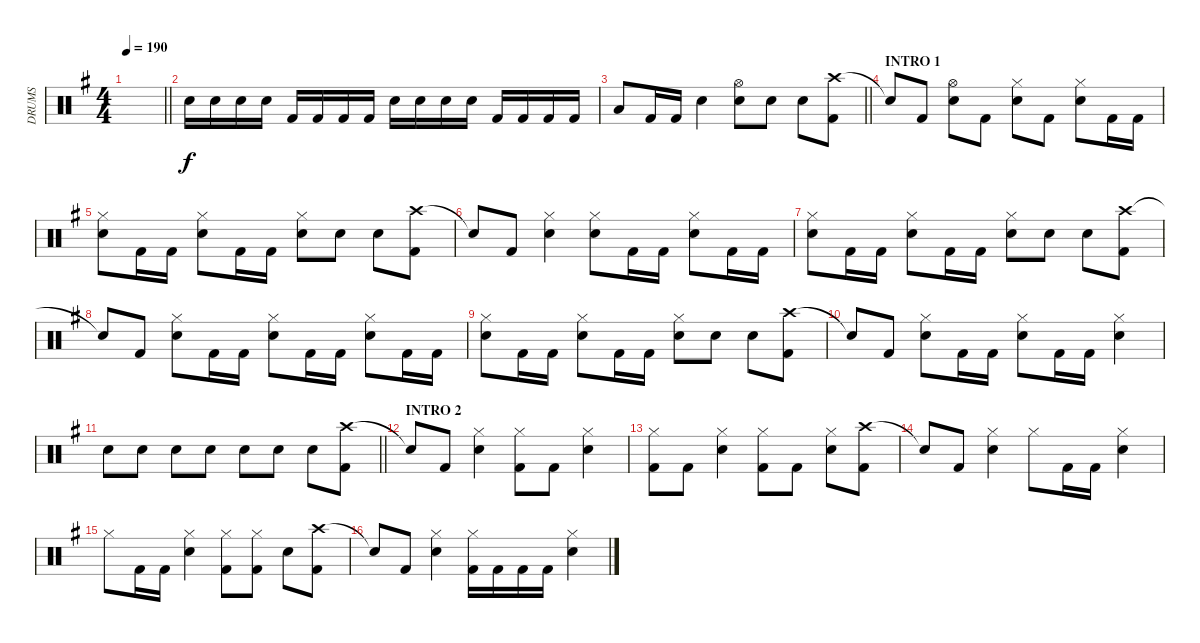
\track ("DRUMS" "DRUMS") {instrument percussion}
\staff {score}
\articulation defaults
\ts (4 4)
\tempo 190
\clef neutral
\barLineRight lightlight
\ks g
|
"Snare (hit) 2".16 "Snare (hit) 2".16 "Snare (hit) 2".16 "Snare (hit) 2".16 "Kick (hit) 2".16 "Kick (hit) 2".16 "Kick (hit) 2".16 "Kick (hit) 2".16 "Snare (hit) 2".16 "Snare (hit) 2".16 "Snare (hit) 2".16 "Snare (hit) 2".16 "Kick (hit) 2".16 "Kick (hit) 2".16 "Kick (hit) 2".16 "Kick (hit) 2".16 |
\barLineRight lightlight "Low Tom (hit)".8 "Kick (hit) 2".16 "Kick (hit) 2".16 "Snare (hit) 2".4
("Hi-Hat (open)" "Snare (hit) 2").8 "Snare (hit) 2".8 "Snare (hit) 2".8 ("Crash high (hit)" "Kick (hit) 2").8 |
\section ("" "INTRO 1")
"Snare (hit)"{t}.8 "Kick (hit) 2".8 ("Hi-Hat (open)" "Snare (hit) 2").8 "Kick (hit) 2".8 ("Hi-Hat (closed)" "Snare (hit) 2").8 "Kick (hit) 2".8 ("Hi-Hat (closed)" "Snare (hit) 2").8 "Kick (hit) 2".16 "Kick (hit) 2".16 |
("Hi-Hat (closed)" "Snare (hit) 2").8 "Kick (hit) 2".16 "Kick (hit) 2".16 ("Hi-Hat (closed)" "Snare (hit) 2").8 "Kick (hit) 2".16 "Kick (hit) 2".16 ("Hi-Hat (closed)" "Snare (hit) 2").8 "Snare (hit) 2".8 "Snare (hit) 2".8 ("Crash high (hit)" "Kick (hit) 2").8 |
"Snare (hit)"{t}.8 "Kick (hit) 2".8 ("Hi-Hat (closed)" "Snare (hit) 2").4 ("Hi-Hat (closed)" "Snare (hit) 2").8 "Kick (hit) 2".16 "Kick (hit) 2".16 ("Hi-Hat (closed)" "Snare (hit) 2").8 "Kick (hit) 2".16 "Kick (hit) 2".16 |
("Hi-Hat (closed)" "Snare (hit) 2").8 "Kick (hit) 2".16 "Kick (hit) 2".16 ("Hi-Hat (closed)" "Snare (hit) 2").8 "Kick (hit) 2".16 "Kick (hit) 2".16 ("Hi-Hat (closed)" "Snare (hit) 2").8 "Snare (hit) 2".8 "Snare (hit) 2".8 ("Crash high (hit)" "Kick (hit) 2").8 |
"Snare (hit)"{t}.8 "Kick (hit) 2".8 ("Hi-Hat (closed)" "Snare (hit) 2").8 "Kick (hit) 2".16 "Kick (hit) 2".16 ("Hi-Hat (closed)" "Snare (hit) 2").8 "Kick (hit) 2".16 "Kick (hit) 2".16 ("Hi-Hat (closed)" "Snare (hit) 2").8 "Kick (hit) 2".16 "Kick (hit) 2".16 |
("Hi-Hat (closed)" "Snare (hit) 2").8 "Kick (hit) 2".16 "Kick (hit) 2".16 ("Hi-Hat (closed)" "Snare (hit) 2").8 "Kick (hit) 2".16 "Kick (hit) 2".16 ("Hi-Hat (closed)" "Snare (hit) 2").8 "Snare (hit) 2".8 "Snare (hit) 2".8 ("Crash high (hit)" "Kick (hit) 2").8 |
"Snare (hit)"{t}.8 "Kick (hit) 2".8 ("Hi-Hat (closed)" "Snare (hit) 2").8 "Kick (hit) 2".16 "Kick (hit) 2".16 ("Hi-Hat (closed)" "Snare (hit) 2").8 "Kick (hit) 2".16 "Kick (hit) 2".16 ("Hi-Hat (closed)" "Snare (hit) 2").4 |
\barLineRight lightlight "Snare (hit) 2".8 "Snare (hit) 2".8 "Snare (hit) 2".8 "Snare (hit) 2".8 "Snare (hit) 2".8 "Snare (hit) 2".8 "Snare (hit) 2".8
("Crash high (hit)" "Kick (hit) 2").8 |
\section ("" "INTRO 2")
"Snare (hit)"{t}.8 "Kick (hit) 2".8 ("Hi-Hat (closed)" "Snare (hit) 2").4 ("Hi-Hat (closed)" "Kick (hit) 2").8 "Kick (hit) 2".8 ("Hi-Hat (closed)" "Snare (hit) 2").4 |
("Hi-Hat (closed)" "Kick (hit) 2").8 "Kick (hit) 2".8 ("Hi-Hat (closed)" "Snare (hit) 2").4 ("Hi-Hat (closed)" "Kick (hit) 2").8 "Kick (hit) 2".8 ("Hi-Hat (closed)" "Snare (hit) 2").8 ("Crash high (hit)" "Kick (hit) 2").8 |
"Snare (hit)"{t}.8 "Kick (hit) 2".8 ("Hi-Hat (closed)" "Snare (hit) 2").4 "Hi-Hat (closed)".8 "Kick (hit) 2".16 "Kick (hit) 2".16 ("Hi-Hat (closed)" "Snare (hit) 2").4 |
"Hi-Hat (closed)".8 "Kick (hit) 2".16 "Kick (hit) 2".16 ("Hi-Hat (closed)" "Snare (hit) 2").4 ("Hi-Hat (closed)" "Kick (hit) 2").8 ("Hi-Hat (closed)" "Kick (hit) 2").8 "Snare (hit) 2".8 ("Crash high (hit)" "Kick (hit) 2").8 |
"Snare (hit)"{t}.8 "Kick (hit) 2".8 ("Hi-Hat (closed)" "Snare (hit) 2").4 ("Hi-Hat (closed)" "Kick (hit) 2").16 "Kick (hit) 2".16 "Kick (hit) 2".16 "Kick (hit) 2".16 ("Hi-Hat (closed)" "Snare (hit) 2").4
